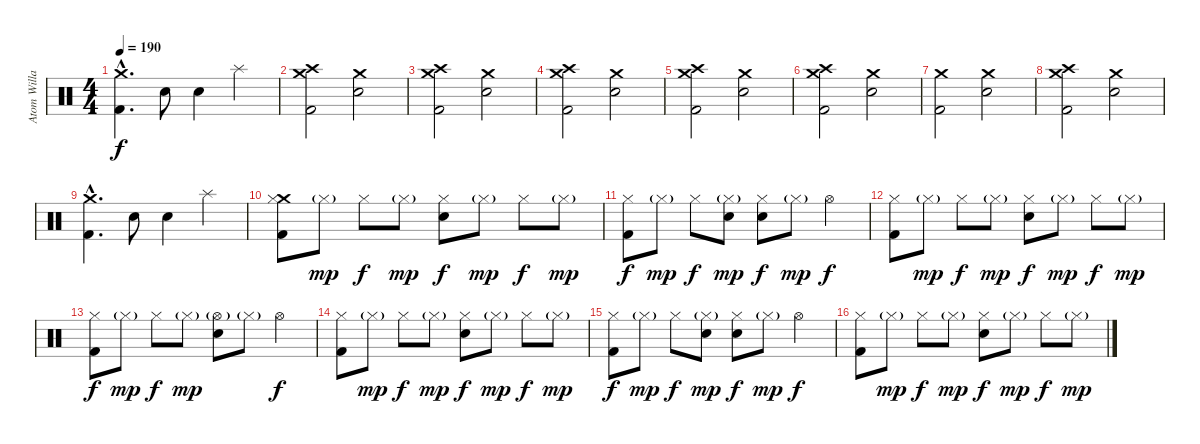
\track ("Atom Willard" "Atom Willa") {instrument percussion}
\staff {score}
\articulation defaults
\ts (4 4)
\tempo 190
\clef neutral
\ks c
("Crash medium (hit)"{hac} "Kick (hit) 2"{hac}).4{d dy f} "Electric Snare (hit)".8 "Electric Snare (hit)".4 "Splash (hit)".4 |
("Crash high (hit)" "Crash medium (hit)" "Kick (hit) 2").2 ("Crash medium (hit)" "Electric Snare (hit)").2 |
("Crash high (hit)" "Crash medium (hit)" "Kick (hit) 2").2 ("Crash medium (hit)" "Electric Snare (hit)").2 |
("Crash high (hit)" "Crash medium (hit)" "Kick (hit) 2").2 ("Crash medium (hit)" "Electric Snare (hit)").2 |
("Crash high (hit)" "Crash medium (hit)" "Kick (hit) 2").2 ("Crash medium (hit)" "Electric Snare (hit)").2 |
("Crash high (hit)" "Crash medium (hit)" "Kick (hit) 2").2 ("Crash medium (hit)" "Electric Snare (hit)").2 |
("Crash medium (hit)" "Kick (hit) 2").2 ("Crash medium (hit)" "Electric Snare (hit)").2 |
("Crash high (hit)" "Crash medium (hit)" "Kick (hit) 2").2 ("Crash medium (hit)" "Electric Snare (hit)").2 |
("Crash medium (hit)"{hac} "Kick (hit) 2"{hac}).4{d} "Electric Snare (hit)".8 "Electric Snare (hit)".4 "Splash (hit)".4 |
("Crash medium (hit)" "Hi-Hat (closed)" "Kick (hit) 2").8 "Hi-Hat (closed)"{g}.8{dy mp} "Hi-Hat (closed)".8{dy f} "Hi-Hat (closed)"{g}.8{dy mp} ("Hi-Hat (closed)" "Electric Snare (hit)").8{dy f} "Hi-Hat (closed)"{g}.8{dy mp} "Hi-Hat (closed)".8{dy f} "Hi-Hat (closed)"{g}.8{dy mp} |
("Hi-Hat (closed)" "Kick (hit) 2").8{dy f} "Hi-Hat (closed)"{g}.8{dy mp} "Hi-Hat (closed)".8{dy f} ("Hi-Hat (closed)"{g} "Electric Snare (hit)").8{dy mp} ("Hi-Hat (closed)" "Electric Snare (hit)").8{dy f} "Hi-Hat (closed)"{g}.8{dy mp} "Hi-Hat (open)".4{dy f} |
("Hi-Hat (closed)" "Kick (hit) 2").8 "Hi-Hat (closed)"{g}.8{dy mp} "Hi-Hat (closed)".8{dy f} "Hi-Hat (closed)"{g}.8{dy mp} ("Hi-Hat (closed)" "Electric Snare (hit)").8{dy f} "Hi-Hat (closed)"{g}.8{dy mp} "Hi-Hat (closed)".8{dy f} "Hi-Hat (closed)"{g}.8{dy mp} |
("Hi-Hat (closed)" "Kick (hit) 2").8{dy f} "Hi-Hat (closed)"{g}.8{dy mp} "Hi-Hat (closed)".8{dy f} "Hi-Hat (closed)"{g}.8{dy mp} ("Hi-Hat (open)"{g} "Electric Snare (hit)").8 "Hi-Hat (closed)"{g}.8 "Hi-Hat (open)".4{dy f} |
("Hi-Hat (closed)" "Kick (hit) 2").8 "Hi-Hat (closed)"{g}.8{dy mp} "Hi-Hat (closed)".8{dy f} "Hi-Hat (closed)"{g}.8{dy mp} ("Hi-Hat (closed)" "Electric Snare (hit)").8{dy f} "Hi-Hat (closed)"{g}.8{dy mp} "Hi-Hat (closed)".8{dy f} "Hi-Hat (closed)"{g}.8{dy mp} |
("Hi-Hat (closed)" "Kick (hit) 2").8{dy f} "Hi-Hat (closed)"{g}.8{dy mp} "Hi-Hat (closed)".8{dy f} ("Hi-Hat (closed)"{g} "Electric Snare (hit)").8{dy mp} ("Hi-Hat (closed)" "Electric Snare (hit)").8{dy f} "Hi-Hat (closed)"{g}.8{dy mp} "Hi-Hat (open)".4{dy f} |
("Hi-Hat (closed)" "Kick (hit) 2").8 "Hi-Hat (closed)"{g}.8{dy mp} "Hi-Hat (closed)".8{dy f} "Hi-Hat (closed)"{g}.8{dy mp} ("Hi-Hat (closed)" "Electric Snare (hit)").8{dy f} "Hi-Hat (closed)"{g}.8{dy mp} "Hi-Hat (closed)".8{dy f} "Hi-Hat (closed)"{g}.8{dy mp}
